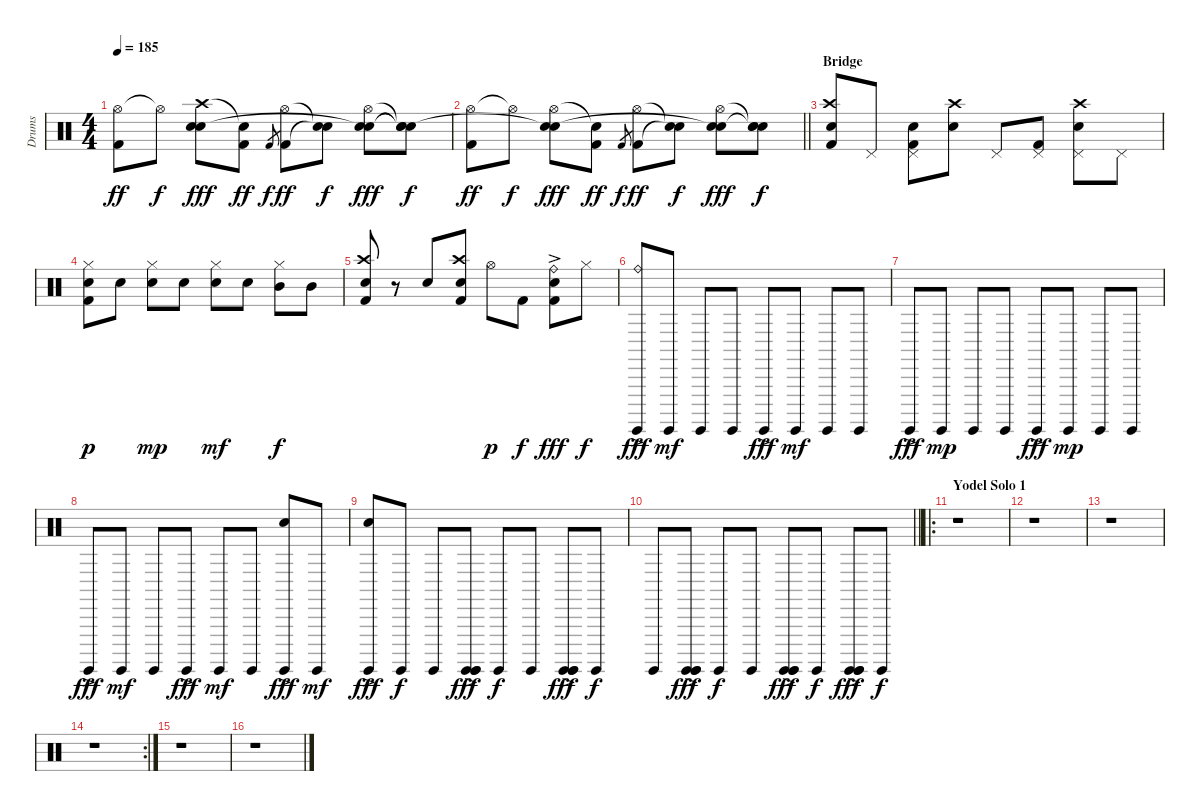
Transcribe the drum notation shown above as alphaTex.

\track ("Drums" "Drums") {instrument percussion}
\staff {score}
\articulation defaults
\ts (4 4)
\tempo 185
\clef neutral
\ks c
("Hi-Hat (open)" "Kick (hit) 2").8{dy ff} "Hi-Hat (open)"{t}.8{dy f} ("Crash high (hit)" "Electric Snare (hit)" "Snare (hit)"{t}).8{dy fff} ("Snare (hit)"{t} "Kick (hit) 2").8{dy ff} "Kick (hit) 2".8{gr dy f} ("Hi-Hat (open)" "Kick (hit) 2").8{dy ff} ("Snare (hit)"{t} "Snare (hit)"{t}).8{dy f} ("Hi-Hat (open)" "Electric Snare (hit)" "Snare (hit)"{t}).8{dy fff} ("Snare (hit)"{t} "Snare (hit)"{t} "Snare (hit)"{t}).8{dy f} |
\barLineRight lightlight
("Hi-Hat (open)" "Kick (hit) 2").8{dy ff} "Hi-Hat (open)"{t}.8{dy f} ("Hi-Hat (open)" "Electric Snare (hit)" "Snare (hit)"{t}).8{dy fff} ("Snare (hit)"{t} "Kick (hit) 2").8{dy ff} "Kick (hit) 2".8{gr dy f} ("Hi-Hat (open)" "Kick (hit) 2").8{dy ff} ("Snare (hit)"{t} "Snare (hit)"{t}).8{dy f} ("Hi-Hat (open)" "Electric Snare (hit)" "Snare (hit)"{t}).8{dy fff} ("Snare (hit)"{t} "Electric Snare (hit)" "Snare (hit)"{t}).8{dy f} |
\section ("" "Bridge")
("Crash high (hit)" "Electric Snare (hit)" "Kick (hit) 2").8 "Pedal Hi-Hat (hit)".8 ("Pedal Hi-Hat (hit)" "Electric Snare (hit)" "Kick (hit) 2").8 ("Crash high (hit)" "Electric Snare (hit)").8 "Pedal Hi-Hat (hit)".8 ("Pedal Hi-Hat (hit)" "Kick (hit) 2").8 ("Crash high (hit)" "Pedal Hi-Hat (hit)" "Electric Snare (hit)").8 "Pedal Hi-Hat (hit)".8 |
("Hi-Hat (closed)" "Electric Snare (hit)" "Kick (hit) 2").8{dy p} "Electric Snare (hit)".8 ("Hi-Hat (closed)" "Electric Snare (hit)").8{dy mp} "Electric Snare (hit)".8 ("Hi-Hat (closed)" "Electric Snare (hit)").8{dy mf} "Electric Snare (hit)".8 ("Hi-Hat (closed)" "Mid Tom (hit)").8{dy f} "Mid Tom (hit)".8 |
("Crash high (hit)" "Electric Snare (hit)" "Kick (hit) 2").8 r.8 "Electric Snare (hit)".8 ("Crash high (hit)" "Electric Snare (hit)" "Kick (hit) 2").8 "Hi-Hat (open)".8{dy p} "Kick (hit) 2".8{dy f} ("Ride (bell)"{ac} "Electric Snare (hit)" "Kick (hit) 2").8{dy fff} "Hi-Hat (closed)".8{dy f} |
("Ride (bell)"{ac} "Surdo (hit)").8{dy fff} "Surdo (hit)".8{dy mf} "Surdo (hit)".8 "Surdo (hit)".8 "Surdo (hit)"{ac}.8{dy fff} "Surdo (hit)".8{dy mf} "Surdo (hit)".8 "Surdo (hit)".8 |
"Surdo (hit)"{ac}.8{dy fff volume 16} "Surdo (hit)".8{dy mp} "Surdo (hit)".8 "Surdo (hit)".8 "Surdo (hit)"{ac}.8{dy fff} "Surdo (hit)".8{dy mp} "Surdo (hit)".8 "Surdo (hit)".8 |
"Surdo (hit)"{ac}.8{dy fff} "Surdo (hit)".8{dy mf} "Surdo (hit)".8 "Surdo (hit)"{ac}.8{dy fff} "Surdo (hit)".8{dy mf} "Surdo (hit)".8 ("Electric Snare (hit)" "Surdo (hit)"{ac}).8{dy fff} "Surdo (hit)".8{dy mf} |
("Electric Snare (hit)" "Surdo (hit)"{ac}).8{dy fff} "Surdo (hit)".8{dy f} "Surdo (hit)".8 ("Surdo (hit)"{ac} "Surdo (hit)"{ac} "Surdo (hit)"{ac}).8{dy fff} "Surdo (hit)".8{dy f} "Surdo (hit)".8 ("Surdo (hit)"{ac} "Surdo (hit)"{ac} "Surdo (hit)"{ac}).8{dy fff} "Surdo (hit)".8{dy f} |
\barLineRight lightlight "Surdo (hit)".8
("Surdo (hit)"{ac} "Surdo (hit)"{ac} "Surdo (hit)"{ac}).8{dy fff} "Surdo (hit)".8{dy f} "Surdo (hit)".8 ("Surdo (hit)"{ac} "Surdo (hit)"{ac} "Surdo (hit)"{ac}).8{dy fff} "Surdo (hit)".8{dy f} ("Surdo (hit)"{ac} "Surdo (hit)"{ac} "Surdo (hit)"{ac}).8{dy fff} "Surdo (hit)".8{dy f} |
\ro
\section ("" "Yodel Solo 1")
r.1 |
r.1 |
r.1 |
\rc 2
r.1 |
r.1 |
r.1
